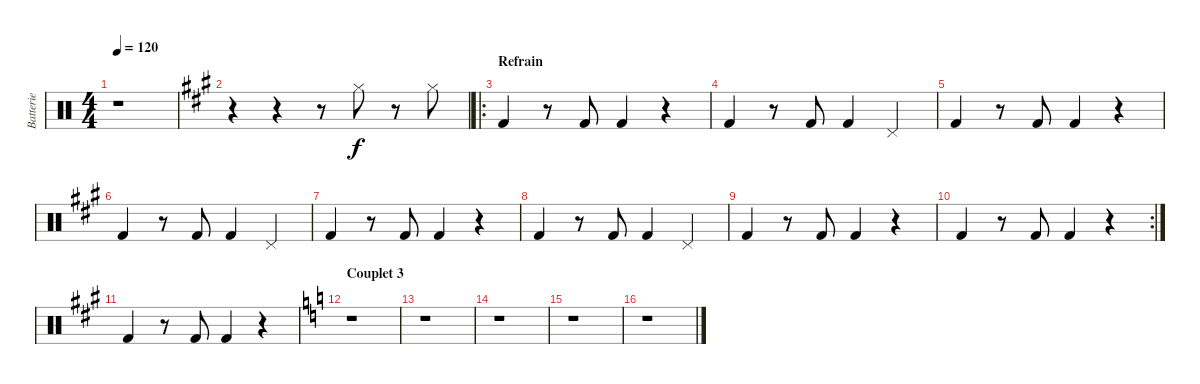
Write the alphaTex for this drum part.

\track ("Batterie" "Batterie") {instrument percussion}
\staff {score}
\articulation defaults
\ts (4 4)
\tempo 120
\clef neutral
\ks c
r.1{dy f} |
\ks a
r.4 r.4 r.8 "Hi-Hat (closed)".8 r.8 "Hi-Hat (closed)".8 |
\ro
\section ("" "Refrain")
"Kick (hit) 2".4 r.8 "Kick (hit) 2".8 "Kick (hit) 2".4 r.4 |
"Kick (hit) 2".4 r.8 "Kick (hit) 2".8 "Kick (hit) 2".4 "Pedal Hi-Hat (hit)".4 |
"Kick (hit) 2".4 r.8 "Kick (hit) 2".8 "Kick (hit) 2".4 r.4 |
"Kick (hit) 2".4 r.8 "Kick (hit) 2".8 "Kick (hit) 2".4 "Pedal Hi-Hat (hit)".4 |
"Kick (hit) 2".4 r.8 "Kick (hit) 2".8 "Kick (hit) 2".4 r.4 |
"Kick (hit) 2".4 r.8 "Kick (hit) 2".8 "Kick (hit) 2".4 "Pedal Hi-Hat (hit)".4 |
"Kick (hit) 2".4 r.8 "Kick (hit) 2".8 "Kick (hit) 2".4 r.4 |
\rc 2 "Kick (hit) 2".4
r.8 "Kick (hit) 2".8 "Kick (hit) 2".4 r.4 |
"Kick (hit) 2".4 r.8 "Kick (hit) 2".8 "Kick (hit) 2".4 r.4 |
\section ("" "Couplet 3")
\ks c
r.1 |
r.1 |
r.1 |
r.1 |
r.1
